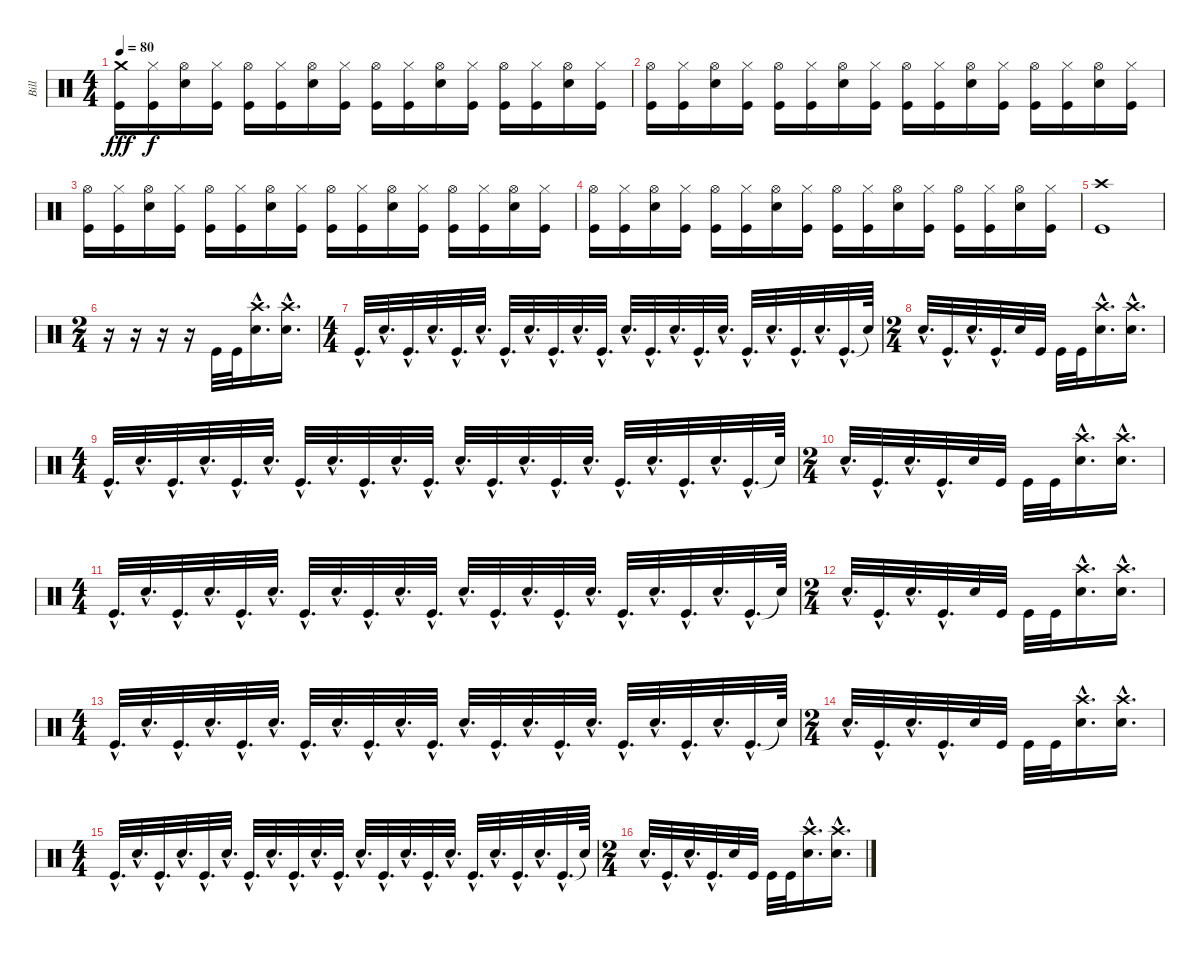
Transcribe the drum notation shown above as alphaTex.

\track ("Bill" "Bill") {instrument percussion}
\staff {score}
\articulation defaults
\ts (4 4)
\tempo 80
\clef neutral
\ks c
("Crash medium (hit)" "Kick (hit)").16{dy fff} ("Hi-Hat (closed)" "Kick (hit)").16{dy f} ("Hi-Hat (open)" "Snare (hit) 2").16 ("Hi-Hat (closed)" "Kick (hit)").16 ("Hi-Hat (open)" "Kick (hit)").16 ("Hi-Hat (closed)" "Kick (hit)").16 ("Hi-Hat (open)" "Snare (hit) 2").16 ("Hi-Hat (closed)" "Kick (hit)").16 ("Hi-Hat (open)" "Kick (hit)").16 ("Hi-Hat (closed)" "Kick (hit)").16 ("Hi-Hat (open)" "Snare (hit) 2").16 ("Hi-Hat (closed)" "Kick (hit)").16 ("Hi-Hat (open)" "Kick (hit)").16 ("Hi-Hat (closed)" "Kick (hit)").16 ("Hi-Hat (open)" "Snare (hit) 2").16 ("Hi-Hat (closed)" "Kick (hit)").16 |
("Hi-Hat (open)" "Kick (hit)").16 ("Hi-Hat (closed)" "Kick (hit)").16 ("Hi-Hat (open)" "Snare (hit) 2").16 ("Hi-Hat (closed)" "Kick (hit)").16 ("Hi-Hat (open)" "Kick (hit)").16 ("Hi-Hat (closed)" "Kick (hit)").16 ("Hi-Hat (open)" "Snare (hit) 2").16 ("Hi-Hat (closed)" "Kick (hit)").16 ("Hi-Hat (open)" "Kick (hit)").16 ("Hi-Hat (closed)" "Kick (hit)").16 ("Hi-Hat (open)" "Snare (hit) 2").16 ("Hi-Hat (closed)" "Kick (hit)").16 ("Hi-Hat (open)" "Kick (hit)").16 ("Hi-Hat (closed)" "Kick (hit)").16 ("Hi-Hat (open)" "Snare (hit) 2").16 ("Hi-Hat (closed)" "Kick (hit)").16 |
("Hi-Hat (open)" "Kick (hit)").16 ("Hi-Hat (closed)" "Kick (hit)").16 ("Hi-Hat (open)" "Snare (hit) 2").16 ("Hi-Hat (closed)" "Kick (hit)").16 ("Hi-Hat (open)" "Kick (hit)").16 ("Hi-Hat (closed)" "Kick (hit)").16 ("Hi-Hat (open)" "Snare (hit) 2").16 ("Hi-Hat (closed)" "Kick (hit)").16 ("Hi-Hat (open)" "Kick (hit)").16 ("Hi-Hat (closed)" "Kick (hit)").16 ("Hi-Hat (open)" "Snare (hit) 2").16 ("Hi-Hat (closed)" "Kick (hit)").16 ("Hi-Hat (open)" "Kick (hit)").16 ("Hi-Hat (closed)" "Kick (hit)").16 ("Hi-Hat (open)" "Snare (hit) 2").16 ("Hi-Hat (closed)" "Kick (hit)").16 |
("Hi-Hat (open)" "Kick (hit)").16 ("Hi-Hat (closed)" "Kick (hit)").16 ("Hi-Hat (open)" "Snare (hit) 2").16 ("Hi-Hat (closed)" "Kick (hit)").16 ("Hi-Hat (open)" "Kick (hit)").16 ("Hi-Hat (closed)" "Kick (hit)").16 ("Hi-Hat (open)" "Snare (hit) 2").16 ("Hi-Hat (closed)" "Kick (hit)").16 ("Hi-Hat (open)" "Kick (hit)").16 ("Hi-Hat (closed)" "Kick (hit)").16 ("Hi-Hat (open)" "Snare (hit) 2").16 ("Hi-Hat (closed)" "Kick (hit)").16 ("Hi-Hat (open)" "Kick (hit)").16 ("Hi-Hat (closed)" "Kick (hit)").16 ("Hi-Hat (open)" "Snare (hit) 2").16 ("Hi-Hat (closed)" "Kick (hit)").16 |
("Crash high (hit)" "Kick (hit)").1 |
\ts (2 4)
r.16 r.16 r.16 r.16 "Kick (hit)".32 "Kick (hit)".32 ("Crash high (hit)"{hac} "Snare (hit) 2"{hac}).16{d} ("Crash high (hit)"{hac} "Snare (hit) 2"{hac}).16{d} |
\ts (4 4)
"Kick (hit)"{hac}.32{d} "Snare (hit) 2"{hac}.32{d} "Kick (hit)"{hac}.32{d} "Snare (hit) 2"{hac}.32{d} "Kick (hit)"{hac}.32{d} "Snare (hit) 2"{hac}.32{d} "Kick (hit)"{hac}.32{d} "Snare (hit) 2"{hac}.32{d} "Kick (hit)"{hac}.32{d} "Snare (hit) 2"{hac}.32{d} "Kick (hit)"{hac}.32{d} "Snare (hit) 2"{hac}.32{d} "Kick (hit)"{hac}.32{d} "Snare (hit) 2"{hac}.32{d} "Kick (hit)"{hac}.32{d} "Snare (hit) 2"{hac}.32{d} "Kick (hit)"{hac}.32{d} "Snare (hit) 2"{hac}.32{d} "Kick (hit)"{hac}.32{d} "Snare (hit) 2"{hac}.32{d} "Kick (hit)"{hac}.32{d} "Snare (hit)"{t}.64 |
\ts (2 4)
"Snare (hit) 2"{hac}.32{d} "Kick (hit)"{hac}.32{d} "Snare (hit) 2"{hac}.32{d} "Kick (hit)"{hac}.32{d} "Snare (hit) 2".32 "Kick (hit)".32 "Kick (hit)".32 "Kick (hit)".32 ("Crash high (hit)"{hac} "Snare (hit) 2"{hac}).16{d} ("Crash high (hit)"{hac} "Snare (hit) 2"{hac}).16{d} |
\ts (4 4)
"Kick (hit)"{hac}.32{d} "Snare (hit) 2"{hac}.32{d} "Kick (hit)"{hac}.32{d} "Snare (hit) 2"{hac}.32{d} "Kick (hit)"{hac}.32{d} "Snare (hit) 2"{hac}.32{d} "Kick (hit)"{hac}.32{d} "Snare (hit) 2"{hac}.32{d} "Kick (hit)"{hac}.32{d} "Snare (hit) 2"{hac}.32{d} "Kick (hit)"{hac}.32{d} "Snare (hit) 2"{hac}.32{d} "Kick (hit)"{hac}.32{d} "Snare (hit) 2"{hac}.32{d} "Kick (hit)"{hac}.32{d} "Snare (hit) 2"{hac}.32{d} "Kick (hit)"{hac}.32{d} "Snare (hit) 2"{hac}.32{d} "Kick (hit)"{hac}.32{d} "Snare (hit) 2"{hac}.32{d} "Kick (hit)"{hac}.32{d} "Snare (hit)"{t}.64 |
\ts (2 4)
"Snare (hit) 2"{hac}.32{d} "Kick (hit)"{hac}.32{d} "Snare (hit) 2"{hac}.32{d} "Kick (hit)"{hac}.32{d} "Snare (hit) 2".32 "Kick (hit)".32 "Kick (hit)".32 "Kick (hit)".32 ("Crash high (hit)"{hac} "Snare (hit) 2"{hac}).16{d} ("Crash high (hit)"{hac} "Snare (hit) 2"{hac}).16{d} |
\ts (4 4)
"Kick (hit)"{hac}.32{d} "Snare (hit) 2"{hac}.32{d} "Kick (hit)"{hac}.32{d} "Snare (hit) 2"{hac}.32{d} "Kick (hit)"{hac}.32{d} "Snare (hit) 2"{hac}.32{d} "Kick (hit)"{hac}.32{d} "Snare (hit) 2"{hac}.32{d} "Kick (hit)"{hac}.32{d} "Snare (hit) 2"{hac}.32{d} "Kick (hit)"{hac}.32{d} "Snare (hit) 2"{hac}.32{d} "Kick (hit)"{hac}.32{d} "Snare (hit) 2"{hac}.32{d} "Kick (hit)"{hac}.32{d} "Snare (hit) 2"{hac}.32{d} "Kick (hit)"{hac}.32{d} "Snare (hit) 2"{hac}.32{d} "Kick (hit)"{hac}.32{d} "Snare (hit) 2"{hac}.32{d} "Kick (hit)"{hac}.32{d} "Snare (hit)"{t}.64 |
\ts (2 4)
"Snare (hit) 2"{hac}.32{d} "Kick (hit)"{hac}.32{d} "Snare (hit) 2"{hac}.32{d} "Kick (hit)"{hac}.32{d} "Snare (hit) 2".32 "Kick (hit)".32 "Kick (hit)".32 "Kick (hit)".32 ("Crash high (hit)"{hac} "Snare (hit) 2"{hac}).16{d} ("Crash high (hit)"{hac} "Snare (hit) 2"{hac}).16{d} |
\ts (4 4)
"Kick (hit)"{hac}.32{d} "Snare (hit) 2"{hac}.32{d} "Kick (hit)"{hac}.32{d} "Snare (hit) 2"{hac}.32{d} "Kick (hit)"{hac}.32{d} "Snare (hit) 2"{hac}.32{d} "Kick (hit)"{hac}.32{d} "Snare (hit) 2"{hac}.32{d} "Kick (hit)"{hac}.32{d} "Snare (hit) 2"{hac}.32{d} "Kick (hit)"{hac}.32{d} "Snare (hit) 2"{hac}.32{d} "Kick (hit)"{hac}.32{d} "Snare (hit) 2"{hac}.32{d} "Kick (hit)"{hac}.32{d} "Snare (hit) 2"{hac}.32{d} "Kick (hit)"{hac}.32{d} "Snare (hit) 2"{hac}.32{d} "Kick (hit)"{hac}.32{d} "Snare (hit) 2"{hac}.32{d} "Kick (hit)"{hac}.32{d} "Snare (hit)"{t}.64 |
\ts (2 4)
"Snare (hit) 2"{hac}.32{d} "Kick (hit)"{hac}.32{d} "Snare (hit) 2"{hac}.32{d} "Kick (hit)"{hac}.32{d} "Snare (hit) 2".32 "Kick (hit)".32 "Kick (hit)".32 "Kick (hit)".32 ("Crash high (hit)"{hac} "Snare (hit) 2"{hac}).16{d} ("Crash high (hit)"{hac} "Snare (hit) 2"{hac}).16{d} |
\ts (4 4)
"Kick (hit)"{hac}.32{d} "Snare (hit) 2"{hac}.32{d} "Kick (hit)"{hac}.32{d} "Snare (hit) 2"{hac}.32{d} "Kick (hit)"{hac}.32{d} "Snare (hit) 2"{hac}.32{d} "Kick (hit)"{hac}.32{d} "Snare (hit) 2"{hac}.32{d} "Kick (hit)"{hac}.32{d} "Snare (hit) 2"{hac}.32{d} "Kick (hit)"{hac}.32{d} "Snare (hit) 2"{hac}.32{d} "Kick (hit)"{hac}.32{d} "Snare (hit) 2"{hac}.32{d} "Kick (hit)"{hac}.32{d} "Snare (hit) 2"{hac}.32{d} "Kick (hit)"{hac}.32{d} "Snare (hit) 2"{hac}.32{d} "Kick (hit)"{hac}.32{d} "Snare (hit) 2"{hac}.32{d} "Kick (hit)"{hac}.32{d} "Snare (hit)"{t}.64 |
\ts (2 4)
"Snare (hit) 2"{hac}.32{d} "Kick (hit)"{hac}.32{d} "Snare (hit) 2"{hac}.32{d} "Kick (hit)"{hac}.32{d} "Snare (hit) 2".32 "Kick (hit)".32 "Kick (hit)".32 "Kick (hit)".32 ("Crash high (hit)"{hac} "Snare (hit) 2"{hac}).16{d} ("Crash high (hit)"{hac} "Snare (hit) 2"{hac}).16{d}
